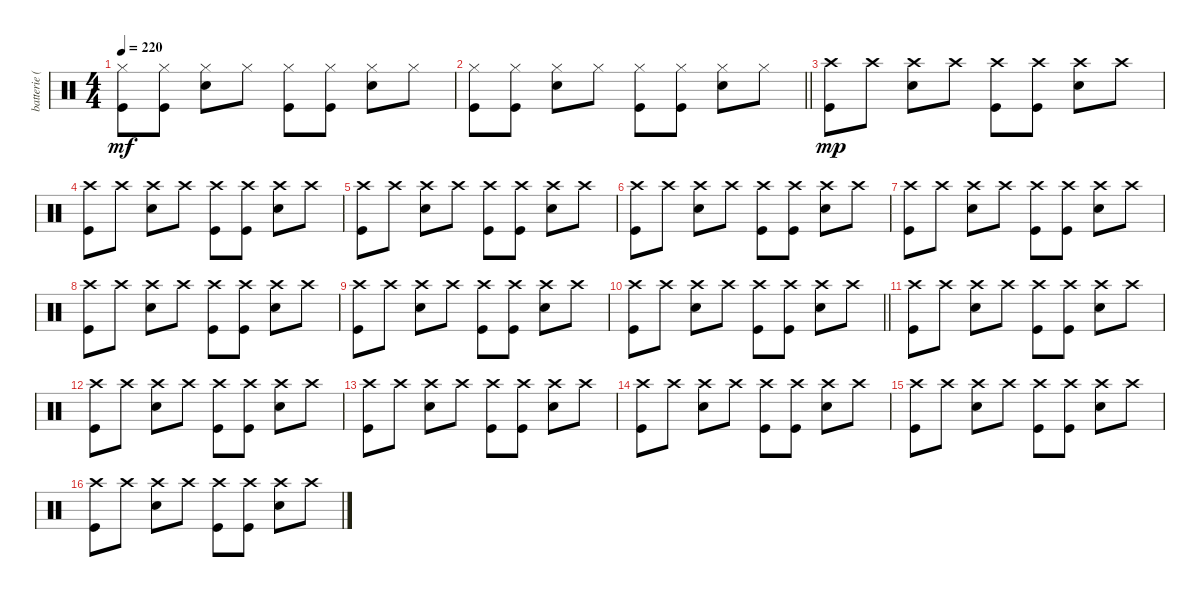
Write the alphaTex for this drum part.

\track ("batterie ( Guillaume ) " "batterie (") {instrument percussion}
\staff {score}
\articulation defaults
\ts (4 4)
\tempo 220
\clef neutral
\ks c
("Hi-Hat (closed)" "Kick (hit)").8{dy mf} ("Hi-Hat (closed)" "Kick (hit)").8 ("Hi-Hat (closed)" "Snare (hit) 2").8 "Hi-Hat (closed)".8 ("Hi-Hat (closed)" "Kick (hit)").8 ("Hi-Hat (closed)" "Kick (hit)").8 ("Hi-Hat (closed)" "Snare (hit) 2").8 "Hi-Hat (closed)".8 |
\barLineRight lightlight
("Hi-Hat (closed)" "Kick (hit)").8 ("Hi-Hat (closed)" "Kick (hit)").8 ("Hi-Hat (closed)" "Snare (hit) 2").8 "Hi-Hat (closed)".8 ("Hi-Hat (closed)" "Kick (hit)").8 ("Hi-Hat (closed)" "Kick (hit)").8 ("Hi-Hat (closed)" "Snare (hit) 2").8 "Hi-Hat (closed)".8 |
("Crash high (hit)" "Kick (hit)").8{dy mp} "Crash high (hit)".8 ("Crash high (hit)" "Snare (hit) 2").8 "Crash high (hit)".8 ("Crash high (hit)" "Kick (hit)").8 ("Crash high (hit)" "Kick (hit)").8 ("Crash high (hit)" "Snare (hit) 2").8 "Crash high (hit)".8 |
("Crash high (hit)" "Kick (hit)").8 "Crash high (hit)".8 ("Crash high (hit)" "Snare (hit) 2").8 "Crash high (hit)".8 ("Crash high (hit)" "Kick (hit)").8 ("Crash high (hit)" "Kick (hit)").8 ("Crash high (hit)" "Snare (hit) 2").8 "Crash high (hit)".8 |
("Crash high (hit)" "Kick (hit)").8 "Crash high (hit)".8 ("Crash high (hit)" "Snare (hit) 2").8 "Crash high (hit)".8 ("Crash high (hit)" "Kick (hit)").8 ("Crash high (hit)" "Kick (hit)").8 ("Crash high (hit)" "Snare (hit) 2").8 "Crash high (hit)".8 |
("Crash high (hit)" "Kick (hit)").8 "Crash high (hit)".8 ("Crash high (hit)" "Snare (hit) 2").8 "Crash high (hit)".8 ("Crash high (hit)" "Kick (hit)").8 ("Crash high (hit)" "Kick (hit)").8 ("Crash high (hit)" "Snare (hit) 2").8 "Crash high (hit)".8 |
("Crash high (hit)" "Kick (hit)").8 "Crash high (hit)".8 ("Crash high (hit)" "Snare (hit) 2").8 "Crash high (hit)".8 ("Crash high (hit)" "Kick (hit)").8 ("Crash high (hit)" "Kick (hit)").8 ("Crash high (hit)" "Snare (hit) 2").8 "Crash high (hit)".8 |
("Crash high (hit)" "Kick (hit)").8 "Crash high (hit)".8 ("Crash high (hit)" "Snare (hit) 2").8 "Crash high (hit)".8 ("Crash high (hit)" "Kick (hit)").8 ("Crash high (hit)" "Kick (hit)").8 ("Crash high (hit)" "Snare (hit) 2").8 "Crash high (hit)".8 |
("Crash high (hit)" "Kick (hit)").8 "Crash high (hit)".8 ("Crash high (hit)" "Snare (hit) 2").8 "Crash high (hit)".8 ("Crash high (hit)" "Kick (hit)").8 ("Crash high (hit)" "Kick (hit)").8 ("Crash high (hit)" "Snare (hit) 2").8 "Crash high (hit)".8 |
\barLineRight lightlight
("Crash high (hit)" "Kick (hit)").8 "Crash high (hit)".8 ("Crash high (hit)" "Snare (hit) 2").8 "Crash high (hit)".8 ("Crash high (hit)" "Kick (hit)").8 ("Crash high (hit)" "Kick (hit)").8 ("Crash high (hit)" "Snare (hit) 2").8 "Crash high (hit)".8 |
("Crash high (hit)" "Kick (hit)").8 "Crash high (hit)".8 ("Crash high (hit)" "Snare (hit) 2").8 "Crash high (hit)".8 ("Crash high (hit)" "Kick (hit)").8 ("Crash high (hit)" "Kick (hit)").8 ("Crash high (hit)" "Snare (hit) 2").8 "Crash high (hit)".8 |
("Crash high (hit)" "Kick (hit)").8 "Crash high (hit)".8 ("Crash high (hit)" "Snare (hit) 2").8 "Crash high (hit)".8 ("Crash high (hit)" "Kick (hit)").8 ("Crash high (hit)" "Kick (hit)").8 ("Crash high (hit)" "Snare (hit) 2").8 "Crash high (hit)".8 |
("Crash high (hit)" "Kick (hit)").8 "Crash high (hit)".8 ("Crash high (hit)" "Snare (hit) 2").8 "Crash high (hit)".8 ("Crash high (hit)" "Kick (hit)").8 ("Crash high (hit)" "Kick (hit)").8 ("Crash high (hit)" "Snare (hit) 2").8 "Crash high (hit)".8 |
("Crash high (hit)" "Kick (hit)").8 "Crash high (hit)".8 ("Crash high (hit)" "Snare (hit) 2").8 "Crash high (hit)".8 ("Crash high (hit)" "Kick (hit)").8 ("Crash high (hit)" "Kick (hit)").8 ("Crash high (hit)" "Snare (hit) 2").8 "Crash high (hit)".8 |
("Crash high (hit)" "Kick (hit)").8 "Crash high (hit)".8 ("Crash high (hit)" "Snare (hit) 2").8 "Crash high (hit)".8 ("Crash high (hit)" "Kick (hit)").8 ("Crash high (hit)" "Kick (hit)").8 ("Crash high (hit)" "Snare (hit) 2").8 "Crash high (hit)".8 |
("Crash high (hit)" "Kick (hit)").8 "Crash high (hit)".8 ("Crash high (hit)" "Snare (hit) 2").8 "Crash high (hit)".8 ("Crash high (hit)" "Kick (hit)").8 ("Crash high (hit)" "Kick (hit)").8 ("Crash high (hit)" "Snare (hit) 2").8 "Crash high (hit)".8
